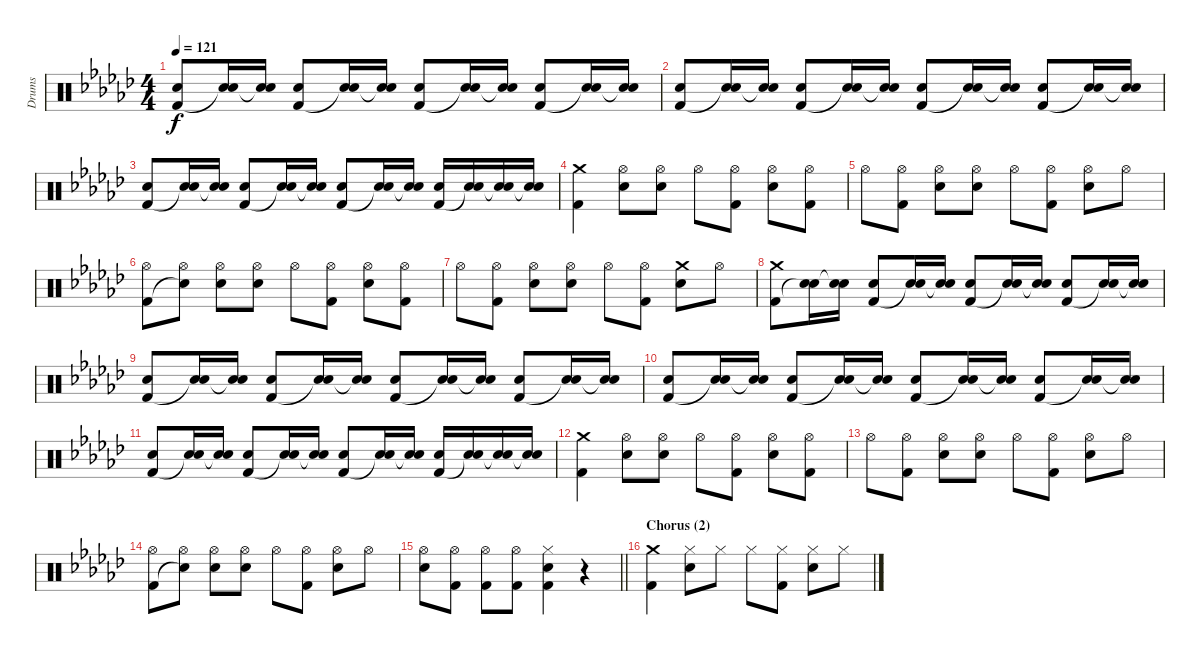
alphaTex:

\track ("Drums" "Drums") {instrument percussion}
\staff {score}
\articulation defaults
\ts (4 4)
\tempo 121
\clef neutral
\ks ebminor
("Electric Snare (hit)" "Kick (hit) 2").8{dy f} ("Electric Snare (hit)" "Snare (hit)"{t}).16 ("Electric Snare (hit)" "Snare (hit)"{t}).16 ("Electric Snare (hit)" "Kick (hit) 2").8 ("Electric Snare (hit)" "Snare (hit)"{t}).16 ("Electric Snare (hit)" "Snare (hit)"{t}).16 ("Electric Snare (hit)" "Kick (hit) 2").8 ("Electric Snare (hit)" "Snare (hit)"{t}).16 ("Electric Snare (hit)" "Snare (hit)"{t}).16 ("Electric Snare (hit)" "Kick (hit) 2").8 ("Electric Snare (hit)" "Snare (hit)"{t}).16 ("Electric Snare (hit)" "Snare (hit)"{t}).16 |
("Electric Snare (hit)" "Kick (hit) 2").8 ("Electric Snare (hit)" "Snare (hit)"{t}).16 ("Electric Snare (hit)" "Snare (hit)"{t}).16 ("Electric Snare (hit)" "Kick (hit) 2").8 ("Electric Snare (hit)" "Snare (hit)"{t}).16 ("Electric Snare (hit)" "Snare (hit)"{t}).16 ("Electric Snare (hit)" "Kick (hit) 2").8 ("Electric Snare (hit)" "Snare (hit)"{t}).16 ("Electric Snare (hit)" "Snare (hit)"{t}).16 ("Electric Snare (hit)" "Kick (hit) 2").8 ("Electric Snare (hit)" "Snare (hit)"{t}).16 ("Electric Snare (hit)" "Snare (hit)"{t}).16 |
("Electric Snare (hit)" "Kick (hit) 2").8 ("Electric Snare (hit)" "Snare (hit)"{t}).16 ("Electric Snare (hit)" "Snare (hit)"{t}).16 ("Electric Snare (hit)" "Kick (hit) 2").8 ("Electric Snare (hit)" "Snare (hit)"{t}).16 ("Electric Snare (hit)" "Snare (hit)"{t}).16 ("Electric Snare (hit)" "Kick (hit) 2").8 ("Electric Snare (hit)" "Snare (hit)"{t}).16 ("Electric Snare (hit)" "Snare (hit)"{t}).16 ("Electric Snare (hit)" "Kick (hit) 2").16 ("Electric Snare (hit)" "Snare (hit)"{t}).16 ("Electric Snare (hit)" "Snare (hit)"{t}).16 ("Electric Snare (hit)" "Snare (hit)"{t}).16 |
("Crash medium (hit)" "Kick (hit) 2").4 ("Hi-Hat (open)" "Electric Snare (hit)").8 ("Hi-Hat (open)" "Electric Snare (hit)").8 "Hi-Hat (open)".8 ("Hi-Hat (open)" "Kick (hit) 2").8 ("Hi-Hat (open)" "Electric Snare (hit)").8 ("Hi-Hat (open)" "Kick (hit) 2").8 |
"Hi-Hat (open)".8 ("Hi-Hat (open)" "Kick (hit) 2").8 ("Hi-Hat (open)" "Electric Snare (hit)").8 ("Hi-Hat (open)" "Electric Snare (hit)").8 "Hi-Hat (open)".8 ("Hi-Hat (open)" "Kick (hit) 2").8 ("Hi-Hat (open)" "Electric Snare (hit)").8 "Hi-Hat (open)".8 |
("Hi-Hat (open)" "Kick (hit) 2").8 ("Hi-Hat (open)" "Snare (hit)"{t}).8 ("Hi-Hat (open)" "Electric Snare (hit)").8 ("Hi-Hat (open)" "Electric Snare (hit)").8 "Hi-Hat (open)".8 ("Hi-Hat (open)" "Kick (hit) 2").8 ("Hi-Hat (open)" "Electric Snare (hit)").8 ("Hi-Hat (open)" "Kick (hit) 2").8 |
"Hi-Hat (open)".8 ("Hi-Hat (open)" "Kick (hit) 2").8 ("Hi-Hat (open)" "Electric Snare (hit)").8 ("Hi-Hat (open)" "Electric Snare (hit)").8 "Hi-Hat (open)".8 ("Hi-Hat (open)" "Kick (hit) 2").8 ("Crash medium (hit)" "Electric Snare (hit)").8 "Hi-Hat (open)".8 |
("Crash medium (hit)" "Kick (hit) 2").8 ("Electric Snare (hit)" "Snare (hit)"{t}).16 ("Electric Snare (hit)" "Snare (hit)"{t}).16 ("Electric Snare (hit)" "Kick (hit) 2").8 ("Electric Snare (hit)" "Snare (hit)"{t}).16 ("Electric Snare (hit)" "Snare (hit)"{t}).16 ("Electric Snare (hit)" "Kick (hit) 2").8 ("Electric Snare (hit)" "Snare (hit)"{t}).16 ("Electric Snare (hit)" "Snare (hit)"{t}).16 ("Electric Snare (hit)" "Kick (hit) 2").8 ("Electric Snare (hit)" "Snare (hit)"{t}).16 ("Electric Snare (hit)" "Snare (hit)"{t}).16 |
("Electric Snare (hit)" "Kick (hit) 2").8 ("Electric Snare (hit)" "Snare (hit)"{t}).16 ("Electric Snare (hit)" "Snare (hit)"{t}).16 ("Electric Snare (hit)" "Kick (hit) 2").8 ("Electric Snare (hit)" "Snare (hit)"{t}).16 ("Electric Snare (hit)" "Snare (hit)"{t}).16 ("Electric Snare (hit)" "Kick (hit) 2").8 ("Electric Snare (hit)" "Snare (hit)"{t}).16 ("Electric Snare (hit)" "Snare (hit)"{t}).16 ("Electric Snare (hit)" "Kick (hit) 2").8 ("Electric Snare (hit)" "Snare (hit)"{t}).16 ("Electric Snare (hit)" "Snare (hit)"{t}).16 |
("Electric Snare (hit)" "Kick (hit) 2").8 ("Electric Snare (hit)" "Snare (hit)"{t}).16 ("Electric Snare (hit)" "Snare (hit)"{t}).16 ("Electric Snare (hit)" "Kick (hit) 2").8 ("Electric Snare (hit)" "Snare (hit)"{t}).16 ("Electric Snare (hit)" "Snare (hit)"{t}).16 ("Electric Snare (hit)" "Kick (hit) 2").8 ("Electric Snare (hit)" "Snare (hit)"{t}).16 ("Electric Snare (hit)" "Snare (hit)"{t}).16 ("Electric Snare (hit)" "Kick (hit) 2").8 ("Electric Snare (hit)" "Snare (hit)"{t}).16 ("Electric Snare (hit)" "Snare (hit)"{t}).16 |
("Electric Snare (hit)" "Kick (hit) 2").8 ("Electric Snare (hit)" "Snare (hit)"{t}).16 ("Electric Snare (hit)" "Snare (hit)"{t}).16 ("Electric Snare (hit)" "Kick (hit) 2").8 ("Electric Snare (hit)" "Snare (hit)"{t}).16 ("Electric Snare (hit)" "Snare (hit)"{t}).16 ("Electric Snare (hit)" "Kick (hit) 2").8 ("Electric Snare (hit)" "Snare (hit)"{t}).16 ("Electric Snare (hit)" "Snare (hit)"{t}).16 ("Electric Snare (hit)" "Kick (hit) 2").16 ("Electric Snare (hit)" "Snare (hit)"{t}).16 ("Electric Snare (hit)" "Snare (hit)"{t}).16 ("Electric Snare (hit)" "Snare (hit)"{t}).16 |
("Crash medium (hit)" "Kick (hit) 2").4 ("Hi-Hat (open)" "Electric Snare (hit)").8 ("Hi-Hat (open)" "Electric Snare (hit)").8 "Hi-Hat (open)".8 ("Hi-Hat (open)" "Kick (hit) 2").8 ("Hi-Hat (open)" "Electric Snare (hit)").8 ("Hi-Hat (open)" "Kick (hit) 2").8 |
"Hi-Hat (open)".8 ("Hi-Hat (open)" "Kick (hit) 2").8 ("Hi-Hat (open)" "Electric Snare (hit)").8 ("Hi-Hat (open)" "Electric Snare (hit)").8 "Hi-Hat (open)".8 ("Hi-Hat (open)" "Kick (hit) 2").8 ("Hi-Hat (open)" "Electric Snare (hit)").8 "Hi-Hat (open)".8 |
("Hi-Hat (open)" "Kick (hit) 2").8 ("Hi-Hat (open)" "Snare (hit)"{t}).8 ("Hi-Hat (open)" "Electric Snare (hit)").8 ("Hi-Hat (open)" "Electric Snare (hit)").8 "Hi-Hat (open)".8 ("Hi-Hat (open)" "Kick (hit) 2").8 ("Hi-Hat (open)" "Electric Snare (hit)").8 "Hi-Hat (open)".8 |
\barLineRight lightlight
("Hi-Hat (open)" "Electric Snare (hit)").8 ("Hi-Hat (open)" "Kick (hit) 2").8 ("Hi-Hat (open)" "Kick (hit) 2").8 ("Hi-Hat (open)" "Kick (hit) 2").8 ("Hi-Hat (closed)" "Electric Snare (hit)" "Kick (hit) 2").4 r.4 |
\section ("" "Chorus (2)")
("Crash medium (hit)" "Kick (hit) 2").4 ("Hi-Hat (closed)" "Electric Snare (hit)").8 "Hi-Hat (closed)".8 "Hi-Hat (closed)".8 ("Hi-Hat (closed)" "Kick (hit) 2").8 ("Hi-Hat (closed)" "Electric Snare (hit)").8 "Hi-Hat (closed)".8
